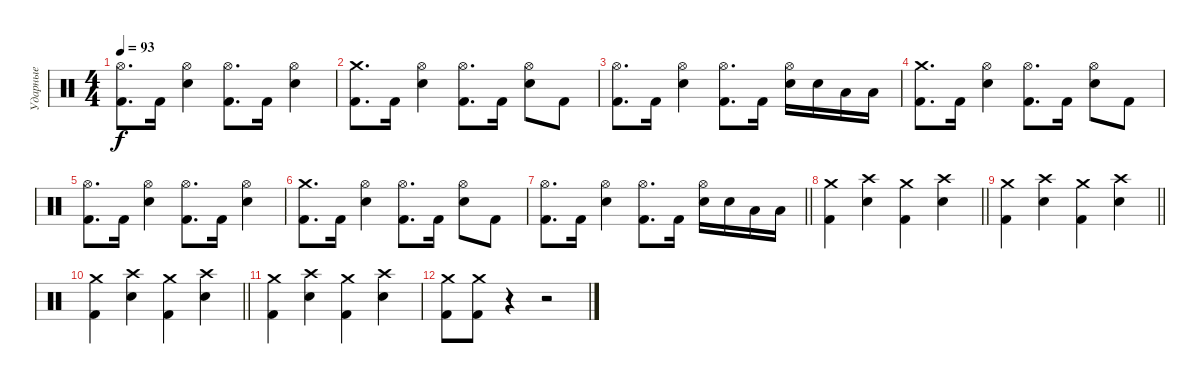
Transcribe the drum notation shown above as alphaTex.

\track ("Ударные" "Ударные") {instrument percussion}
\staff {score}
\articulation defaults
\ts (4 4)
\tempo 93
\clef neutral
\ks c
("Kick (hit) 2" "Hi-Hat (open)").8{d dy f} "Kick (hit) 2".16 ("Hi-Hat (open)" "Snare (hit) 2").4 ("Hi-Hat (open)" "Kick (hit) 2").8{d} "Kick (hit) 2".16 ("Hi-Hat (open)" "Snare (hit) 2").4 |
("Kick (hit) 2" "Crash medium (hit)").8{d} "Kick (hit) 2".16 ("Hi-Hat (open)" "Snare (hit) 2").4 ("Hi-Hat (open)" "Kick (hit) 2").8{d} "Kick (hit) 2".16 ("Hi-Hat (open)" "Snare (hit) 2").8 "Kick (hit) 2".8 |
("Kick (hit) 2" "Hi-Hat (open)").8{d} "Kick (hit) 2".16 ("Hi-Hat (open)" "Snare (hit) 2").4 ("Hi-Hat (open)" "Kick (hit) 2").8{d} "Kick (hit) 2".16 ("Hi-Hat (open)" "Snare (hit) 2").16 "Snare (hit) 2".16 "Low Tom (hit)".16 "Low Tom (hit)".16 |
("Kick (hit) 2" "Crash medium (hit)").8{d} "Kick (hit) 2".16 ("Hi-Hat (open)" "Snare (hit) 2").4 ("Hi-Hat (open)" "Kick (hit) 2").8{d} "Kick (hit) 2".16 ("Hi-Hat (open)" "Snare (hit) 2").8 "Kick (hit) 2".8 |
("Kick (hit) 2" "Hi-Hat (open)").8{d} "Kick (hit) 2".16 ("Hi-Hat (open)" "Snare (hit) 2").4 ("Hi-Hat (open)" "Kick (hit) 2").8{d} "Kick (hit) 2".16 ("Hi-Hat (open)" "Snare (hit) 2").4 |
("Kick (hit) 2" "Crash medium (hit)").8{d} "Kick (hit) 2".16 ("Hi-Hat (open)" "Snare (hit) 2").4 ("Hi-Hat (open)" "Kick (hit) 2").8{d} "Kick (hit) 2".16 ("Hi-Hat (open)" "Snare (hit) 2").8 "Kick (hit) 2".8 |
\barLineRight lightlight
("Kick (hit) 2" "Hi-Hat (open)").8{d} "Kick (hit) 2".16 ("Hi-Hat (open)" "Snare (hit) 2").4 ("Hi-Hat (open)" "Kick (hit) 2").8{d} "Kick (hit) 2".16 ("Hi-Hat (open)" "Snare (hit) 2").16 "Snare (hit) 2".16 "Low Tom (hit)".16 "Low Tom (hit)".16 |
\barLineRight lightlight
("Crash medium (hit)" "Kick (hit) 2").4 ("Crash high (hit)" "Snare (hit) 2").4 ("Crash medium (hit)" "Kick (hit) 2").4 ("Crash high (hit)" "Snare (hit) 2").4 |
\barLineRight lightlight
("Crash medium (hit)" "Kick (hit) 2").4 ("Crash high (hit)" "Snare (hit) 2").4 ("Crash medium (hit)" "Kick (hit) 2").4 ("Crash high (hit)" "Snare (hit) 2").4 |
\barLineRight lightlight
("Crash medium (hit)" "Kick (hit) 2").4 ("Crash high (hit)" "Snare (hit) 2").4 ("Crash medium (hit)" "Kick (hit) 2").4 ("Crash high (hit)" "Snare (hit) 2").4 |
("Crash medium (hit)" "Kick (hit) 2").4 ("Crash high (hit)" "Snare (hit) 2").4 ("Crash medium (hit)" "Kick (hit) 2").4 ("Crash high (hit)" "Snare (hit) 2").4 |
("Crash medium (hit)" "Kick (hit) 2").8 ("Crash medium (hit)" "Kick (hit) 2").8 r.4 r.2
